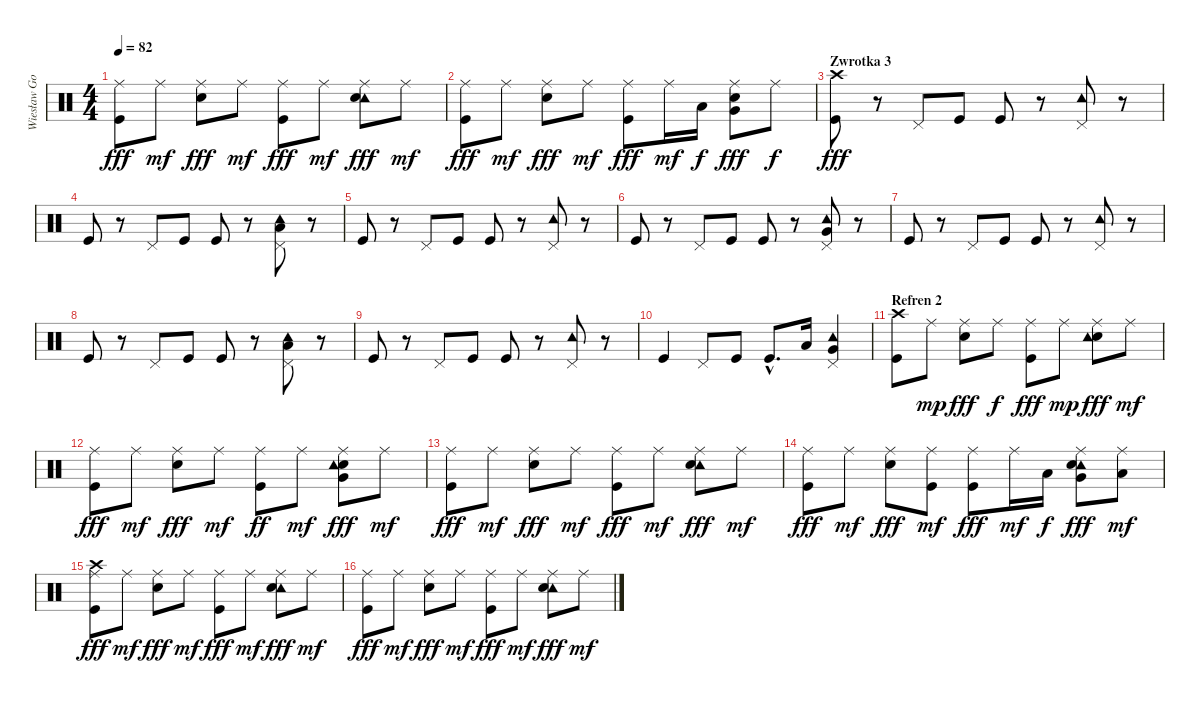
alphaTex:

\track ("Wiesław Gola" "Wiesław Go") {instrument percussion}
\staff {score}
\articulation defaults
\ts (4 4)
\tempo 82
\clef neutral
\ks c
("Ride (middle)" "Kick (hit)").8{dy fff} "Ride (middle)".8{dy mf} ("Ride (middle)" "Snare (hit) 2").8{dy fff} "Ride (middle)".8{dy mf} ("Kick (hit)" "Ride (middle)").8{dy fff} "Ride (middle)".8{dy mf} ("Tambourine (hit)" "Snare (hit) 2" "Ride (middle)").8{dy fff} "Ride (middle)".8{dy mf} |
("Kick (hit)" "Ride (middle)").8{dy fff} "Ride (middle)".8{dy mf} ("Snare (hit) 2" "Ride (middle)").8{dy fff} "Ride (middle)".8{dy mf} ("Ride (middle)" "Kick (hit)").8{dy fff} "Ride (middle)".16{dy mf} "Low Tom (hit)".16{dy f} ("Ride (middle)" "Very Low Tom (hit)" "Snare (hit) 2").8{dy fff} "Ride (middle)".8{dy f} |
\section ("" "Zwrotka 3")
("Kick (hit)" "Crash high (hit)").8{dy fff} r.8 "Pedal Hi-Hat (hit)".8 "Kick (hit)".8 "Kick (hit)".8 r.8 ("Pedal Hi-Hat (hit)" "Tambourine (hit)").8 r.8 |
"Kick (hit)".8 r.8 "Pedal Hi-Hat (hit)".8 "Kick (hit)".8 "Kick (hit)".8 r.8 ("Low Floor Tom (hit)" "Pedal Hi-Hat (hit)" "Tambourine (hit)").8 r.8 |
"Kick (hit)".8 r.8 "Pedal Hi-Hat (hit)".8 "Kick (hit)".8 "Kick (hit)".8 r.8 ("Pedal Hi-Hat (hit)" "Tambourine (hit)").8 r.8 |
"Kick (hit)".8 r.8 "Pedal Hi-Hat (hit)".8 "Kick (hit)".8 "Kick (hit)".8 r.8 ("Very Low Tom (hit)" "Pedal Hi-Hat (hit)" "Tambourine (hit)").8 r.8 |
"Kick (hit)".8 r.8 "Pedal Hi-Hat (hit)".8 "Kick (hit)".8 "Kick (hit)".8 r.8 ("Pedal Hi-Hat (hit)" "Tambourine (hit)").8 r.8 |
"Kick (hit)".8 r.8 "Pedal Hi-Hat (hit)".8 "Kick (hit)".8 "Kick (hit)".8 r.8 ("Low Floor Tom (hit)" "Pedal Hi-Hat (hit)" "Tambourine (hit)").8 r.8 |
"Kick (hit)".8 r.8 "Pedal Hi-Hat (hit)".8 "Kick (hit)".8 "Kick (hit)".8 r.8 ("Pedal Hi-Hat (hit)" "Tambourine (hit)").8 r.8 |
"Kick (hit)".4 "Pedal Hi-Hat (hit)".8 "Kick (hit)".8 "Kick (hit)"{hac}.8{d} "Low Tom (hit)".16 ("Very Low Tom (hit)" "Pedal Hi-Hat (hit)" "Tambourine (hit)").4 |
\section ("" "Refren 2")
("Crash high (hit)" "Kick (hit)").8 "Ride (middle)".8{dy mp} ("Snare (hit) 2" "Ride (middle)").8{dy fff} "Ride (middle)".8{dy f} ("Kick (hit)" "Ride (middle)").8{dy fff} "Ride (middle)".8{dy mp} ("Snare (hit) 2" "Tambourine (hit)" "Ride (middle)").8{dy fff} "Ride (middle)".8{dy mf} |
("Kick (hit)" "Ride (middle)").8{dy fff} "Ride (middle)".8{dy mf} ("Snare (hit) 2" "Ride (middle)").8{dy fff} "Ride (middle)".8{dy mf} ("Kick (hit)" "Ride (middle)").8{dy ff} "Ride (middle)".8{dy mf} ("Snare (hit) 2" "Ride (middle)" "Very Low Tom (hit)" "Tambourine (hit)").8{dy fff} "Ride (middle)".8{dy mf} |
("Ride (middle)" "Kick (hit)").8{dy fff} "Ride (middle)".8{dy mf} ("Ride (middle)" "Snare (hit) 2").8{dy fff} "Ride (middle)".8{dy mf} ("Kick (hit)" "Ride (middle)").8{dy fff} "Ride (middle)".8{dy mf} ("Tambourine (hit)" "Snare (hit) 2" "Ride (middle)").8{dy fff} "Ride (middle)".8{dy mf} |
("Ride (middle)" "Kick (hit)").8{dy fff} "Ride (middle)".8{dy mf} ("Ride (middle)" "Snare (hit) 2").8{dy fff} ("Kick (hit)" "Ride (middle)").8{dy mf} ("Ride (middle)" "Kick (hit)").8{dy fff} "Ride (middle)".16{dy mf} "Low Tom (hit)".16{dy f} ("Ride (middle)" "Very Low Tom (hit)" "Tambourine (hit)" "Snare (hit) 2").8{dy fff} ("Ride (middle)" "Low Floor Tom (hit)").8{dy mf} |
("Crash high (hit)" "Kick (hit)" "Ride (middle)").8{dy fff} "Ride (middle)".8{dy mf} ("Ride (middle)" "Snare (hit) 2").8{dy fff} "Ride (middle)".8{dy mf} ("Ride (middle)" "Kick (hit)").8{dy fff} "Ride (middle)".8{dy mf} ("Tambourine (hit)" "Snare (hit) 2" "Ride (middle)").8{dy fff} "Ride (middle)".8{dy mf} |
("Ride (middle)" "Kick (hit)").8{dy fff} "Ride (middle)".8{dy mf} ("Ride (middle)" "Snare (hit) 2").8{dy fff} "Ride (middle)".8{dy mf} ("Kick (hit)" "Ride (middle)").8{dy fff} "Ride (middle)".8{dy mf} ("Tambourine (hit)" "Snare (hit) 2" "Ride (middle)").8{dy fff} "Ride (middle)".8{dy mf}
